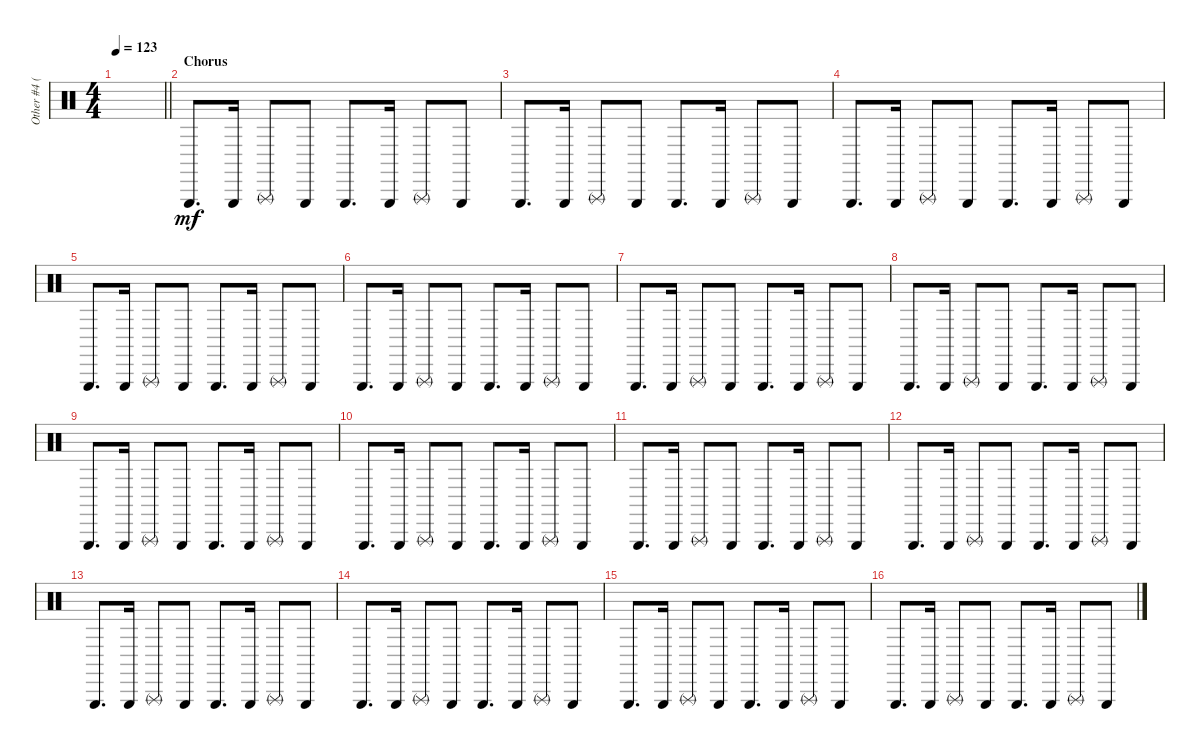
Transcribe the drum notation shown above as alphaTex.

\track ("Other #4 (Triangle)" "Other #4 (") {instrument percussion}
\staff {score}
\articulation defaults
\ts (4 4)
\tempo 123
\clef neutral
\barLineRight lightlight
\ks c
|
\section ("" "Chorus")
"Triangle (hit)".8{d dy mf} "Triangle (hit)".16 "Triangle (rnute)".8 "Triangle (hit)".8 "Triangle (hit)".8{d} "Triangle (hit)".16 "Triangle (rnute)".8 "Triangle (hit)".8 |
"Triangle (hit)".8{d} "Triangle (hit)".16 "Triangle (rnute)".8 "Triangle (hit)".8 "Triangle (hit)".8{d} "Triangle (hit)".16 "Triangle (rnute)".8 "Triangle (hit)".8 |
"Triangle (hit)".8{d} "Triangle (hit)".16 "Triangle (rnute)".8 "Triangle (hit)".8 "Triangle (hit)".8{d} "Triangle (hit)".16 "Triangle (rnute)".8 "Triangle (hit)".8 |
"Triangle (hit)".8{d} "Triangle (hit)".16 "Triangle (rnute)".8 "Triangle (hit)".8 "Triangle (hit)".8{d} "Triangle (hit)".16 "Triangle (rnute)".8 "Triangle (hit)".8 |
"Triangle (hit)".8{d} "Triangle (hit)".16 "Triangle (rnute)".8 "Triangle (hit)".8 "Triangle (hit)".8{d} "Triangle (hit)".16 "Triangle (rnute)".8 "Triangle (hit)".8 |
"Triangle (hit)".8{d} "Triangle (hit)".16 "Triangle (rnute)".8 "Triangle (hit)".8 "Triangle (hit)".8{d} "Triangle (hit)".16 "Triangle (rnute)".8 "Triangle (hit)".8 |
"Triangle (hit)".8{d} "Triangle (hit)".16 "Triangle (rnute)".8 "Triangle (hit)".8 "Triangle (hit)".8{d} "Triangle (hit)".16 "Triangle (rnute)".8 "Triangle (hit)".8 |
"Triangle (hit)".8{d} "Triangle (hit)".16 "Triangle (rnute)".8 "Triangle (hit)".8 "Triangle (hit)".8{d} "Triangle (hit)".16 "Triangle (rnute)".8 "Triangle (hit)".8 |
"Triangle (hit)".8{d} "Triangle (hit)".16 "Triangle (rnute)".8 "Triangle (hit)".8 "Triangle (hit)".8{d} "Triangle (hit)".16 "Triangle (rnute)".8 "Triangle (hit)".8 |
"Triangle (hit)".8{d} "Triangle (hit)".16 "Triangle (rnute)".8 "Triangle (hit)".8 "Triangle (hit)".8{d} "Triangle (hit)".16 "Triangle (rnute)".8 "Triangle (hit)".8 |
"Triangle (hit)".8{d} "Triangle (hit)".16 "Triangle (rnute)".8 "Triangle (hit)".8 "Triangle (hit)".8{d} "Triangle (hit)".16 "Triangle (rnute)".8 "Triangle (hit)".8 |
"Triangle (hit)".8{d} "Triangle (hit)".16 "Triangle (rnute)".8 "Triangle (hit)".8 "Triangle (hit)".8{d} "Triangle (hit)".16 "Triangle (rnute)".8 "Triangle (hit)".8 |
"Triangle (hit)".8{d} "Triangle (hit)".16 "Triangle (rnute)".8 "Triangle (hit)".8 "Triangle (hit)".8{d} "Triangle (hit)".16 "Triangle (rnute)".8 "Triangle (hit)".8 |
"Triangle (hit)".8{d} "Triangle (hit)".16 "Triangle (rnute)".8 "Triangle (hit)".8 "Triangle (hit)".8{d} "Triangle (hit)".16 "Triangle (rnute)".8 "Triangle (hit)".8 |
"Triangle (hit)".8{d} "Triangle (hit)".16 "Triangle (rnute)".8 "Triangle (hit)".8 "Triangle (hit)".8{d} "Triangle (hit)".16 "Triangle (rnute)".8 "Triangle (hit)".8
